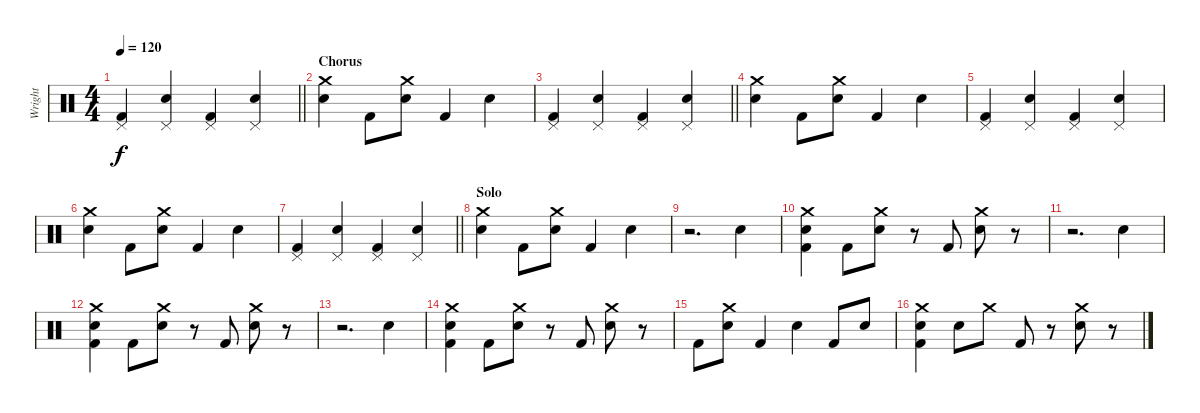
\track ("Wright" "Wright") {instrument percussion}
\staff {score}
\articulation defaults
\ts (4 4)
\tempo 120
\clef neutral
\barLineRight lightlight
\ks c
("Kick (hit) 2" "Pedal Hi-Hat (hit)").4{dy f} ("Snare (hit) 2" "Pedal Hi-Hat (hit)").4 ("Kick (hit) 2" "Pedal Hi-Hat (hit)").4 ("Snare (hit) 2" "Pedal Hi-Hat (hit)").4 |
\section ("" "Chorus")
("Snare (hit) 2" "Crash medium (hit)").4 "Kick (hit) 2".8 ("Snare (hit) 2" "Crash medium (hit)").8 "Kick (hit) 2".4 "Snare (hit) 2".4 |
\barLineRight lightlight
("Kick (hit) 2" "Pedal Hi-Hat (hit)").4 ("Snare (hit) 2" "Pedal Hi-Hat (hit)").4 ("Kick (hit) 2" "Pedal Hi-Hat (hit)").4 ("Snare (hit) 2" "Pedal Hi-Hat (hit)").4 |
\section ("" "")
("Snare (hit) 2" "Crash medium (hit)").4 "Kick (hit) 2".8 ("Snare (hit) 2" "Crash medium (hit)").8 "Kick (hit) 2".4 "Snare (hit) 2".4 |
("Kick (hit) 2" "Pedal Hi-Hat (hit)").4 ("Snare (hit) 2" "Pedal Hi-Hat (hit)").4 ("Kick (hit) 2" "Pedal Hi-Hat (hit)").4 ("Snare (hit) 2" "Pedal Hi-Hat (hit)").4 |
("Snare (hit) 2" "Crash medium (hit)").4 "Kick (hit) 2".8 ("Snare (hit) 2" "Crash medium (hit)").8 "Kick (hit) 2".4 "Snare (hit) 2".4 |
\barLineRight lightlight
("Kick (hit) 2" "Pedal Hi-Hat (hit)").4 ("Snare (hit) 2" "Pedal Hi-Hat (hit)").4 ("Kick (hit) 2" "Pedal Hi-Hat (hit)").4 ("Snare (hit) 2" "Pedal Hi-Hat (hit)").4 |
\section ("" "Solo")
("Snare (hit) 2" "Crash medium (hit)").4 "Kick (hit) 2".8 ("Snare (hit) 2" "Crash medium (hit)").8 "Kick (hit) 2".4 "Snare (hit) 2".4 |
r.2{d} "Snare (hit) 2".4 |
("Kick (hit) 2" "Snare (hit) 2" "Crash medium (hit)").4 "Kick (hit) 2".8 ("Snare (hit) 2" "Crash medium (hit)").8 r.8 "Kick (hit) 2".8 ("Snare (hit) 2" "Crash medium (hit)").8 r.8 |
r.2{d} "Snare (hit) 2".4 |
("Kick (hit) 2" "Snare (hit) 2" "Crash medium (hit)").4 "Kick (hit) 2".8 ("Snare (hit) 2" "Crash medium (hit)").8 r.8 "Kick (hit) 2".8 ("Snare (hit) 2" "Crash medium (hit)").8 r.8 |
r.2{d} "Snare (hit) 2".4 |
("Kick (hit) 2" "Snare (hit) 2" "Crash medium (hit)").4 "Kick (hit) 2".8 ("Snare (hit) 2" "Crash medium (hit)").8 r.8 "Kick (hit) 2".8 ("Snare (hit) 2" "Crash medium (hit)").8 r.8 |
"Kick (hit) 2".8 ("Snare (hit) 2" "Crash medium (hit)").8 "Kick (hit) 2".4 "Snare (hit) 2".4 "Kick (hit) 2".8 "Snare (hit) 2".8 |
("Kick (hit) 2" "Snare (hit) 2" "Crash medium (hit)").4 "Snare (hit) 2".8 "Crash medium (hit)".8 "Kick (hit) 2".8 r.8 ("Snare (hit) 2" "Crash medium (hit)").8 r.8
